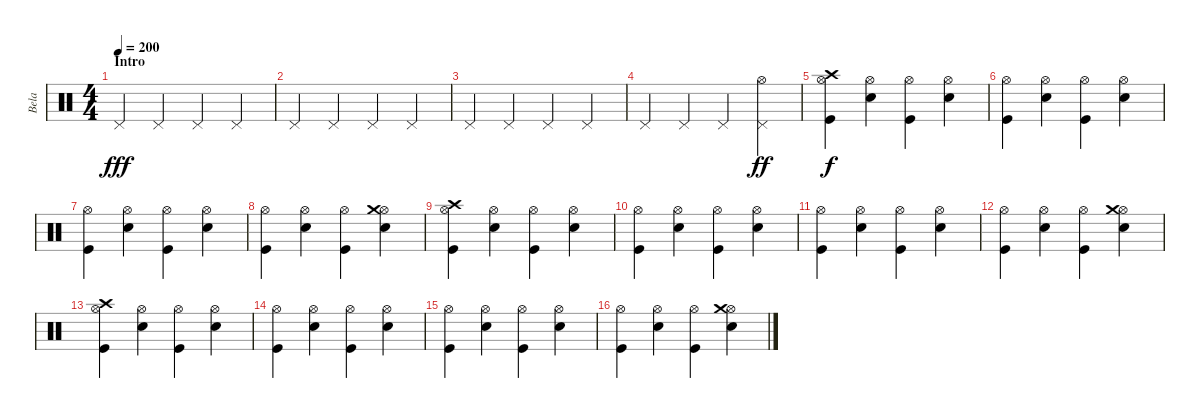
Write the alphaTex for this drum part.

\track ("Bela" "Bela") {instrument percussion}
\staff {score}
\articulation defaults
\ts (4 4)
\section ("" "Intro")
\tempo 200
\clef neutral
\ks c "Pedal Hi-Hat (hit)".4{dy fff} "Pedal Hi-Hat (hit)".4 "Pedal Hi-Hat (hit)".4 "Pedal Hi-Hat (hit)".4
|
"Pedal Hi-Hat (hit)".4 "Pedal Hi-Hat (hit)".4 "Pedal Hi-Hat (hit)".4 "Pedal Hi-Hat (hit)".4 |
"Pedal Hi-Hat (hit)".4 "Pedal Hi-Hat (hit)".4 "Pedal Hi-Hat (hit)".4 "Pedal Hi-Hat (hit)".4 |
"Pedal Hi-Hat (hit)".4 "Pedal Hi-Hat (hit)".4 "Pedal Hi-Hat (hit)".4 ("Pedal Hi-Hat (hit)" "Hi-Hat (open)").4{dy ff} |
("Hi-Hat (open)" "Crash high (hit)" "Kick (hit)").4{dy f} ("Hi-Hat (open)" "Electric Snare (hit)").4 ("Hi-Hat (open)" "Kick (hit)").4 ("Hi-Hat (open)" "Electric Snare (hit)").4 |
("Hi-Hat (open)" "Kick (hit)").4 ("Hi-Hat (open)" "Electric Snare (hit)").4 ("Hi-Hat (open)" "Kick (hit)").4 ("Hi-Hat (open)" "Electric Snare (hit)").4 |
("Hi-Hat (open)" "Kick (hit)").4 ("Hi-Hat (open)" "Electric Snare (hit)").4 ("Hi-Hat (open)" "Kick (hit)").4 ("Hi-Hat (open)" "Electric Snare (hit)").4 |
("Hi-Hat (open)" "Kick (hit)").4 ("Hi-Hat (open)" "Electric Snare (hit)").4 ("Hi-Hat (open)" "Kick (hit)").4 ("Hi-Hat (open)" "Crash medium (hit)" "Electric Snare (hit)").4 |
("Hi-Hat (open)" "Crash high (hit)" "Kick (hit)").4 ("Hi-Hat (open)" "Electric Snare (hit)").4 ("Hi-Hat (open)" "Kick (hit)").4 ("Hi-Hat (open)" "Electric Snare (hit)").4 |
("Hi-Hat (open)" "Kick (hit)").4 ("Hi-Hat (open)" "Electric Snare (hit)").4 ("Hi-Hat (open)" "Kick (hit)").4 ("Hi-Hat (open)" "Electric Snare (hit)").4 |
("Hi-Hat (open)" "Kick (hit)").4 ("Hi-Hat (open)" "Electric Snare (hit)").4 ("Hi-Hat (open)" "Kick (hit)").4 ("Hi-Hat (open)" "Electric Snare (hit)").4 |
("Hi-Hat (open)" "Kick (hit)").4 ("Hi-Hat (open)" "Electric Snare (hit)").4 ("Hi-Hat (open)" "Kick (hit)").4 ("Hi-Hat (open)" "Crash medium (hit)" "Electric Snare (hit)").4 |
("Hi-Hat (open)" "Crash high (hit)" "Kick (hit)").4 ("Hi-Hat (open)" "Electric Snare (hit)").4 ("Hi-Hat (open)" "Kick (hit)").4 ("Hi-Hat (open)" "Electric Snare (hit)").4 |
("Hi-Hat (open)" "Kick (hit)").4 ("Hi-Hat (open)" "Electric Snare (hit)").4 ("Hi-Hat (open)" "Kick (hit)").4 ("Hi-Hat (open)" "Electric Snare (hit)").4 |
("Hi-Hat (open)" "Kick (hit)").4 ("Hi-Hat (open)" "Electric Snare (hit)").4 ("Hi-Hat (open)" "Kick (hit)").4 ("Hi-Hat (open)" "Electric Snare (hit)").4 |
("Hi-Hat (open)" "Kick (hit)").4 ("Hi-Hat (open)" "Electric Snare (hit)").4 ("Hi-Hat (open)" "Kick (hit)").4 ("Hi-Hat (open)" "Crash medium (hit)" "Electric Snare (hit)").4
